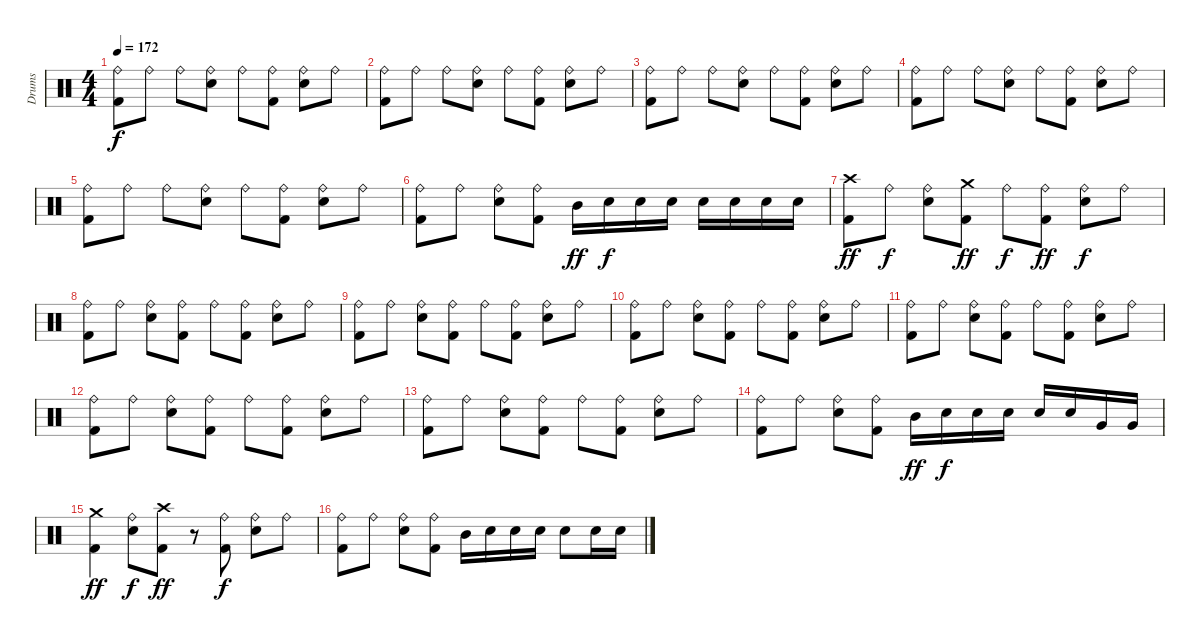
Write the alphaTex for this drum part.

\track ("Drums" "Drums") {instrument percussion}
\staff {score}
\articulation defaults
\ts (4 4)
\tempo 172
\clef neutral
\ks c
("Ride (bell)" "Kick (hit) 2").8{dy f} "Ride (bell)".8 "Ride (bell)".8 ("Ride (bell)" "Electric Snare (hit)").8 "Ride (bell)".8 ("Ride (bell)" "Kick (hit) 2").8 ("Ride (bell)" "Electric Snare (hit)").8 "Ride (bell)".8 |
("Ride (bell)" "Kick (hit) 2").8 "Ride (bell)".8 "Ride (bell)".8 ("Ride (bell)" "Electric Snare (hit)").8 "Ride (bell)".8 ("Ride (bell)" "Kick (hit) 2").8 ("Ride (bell)" "Electric Snare (hit)").8 "Ride (bell)".8 |
("Ride (bell)" "Kick (hit) 2").8 "Ride (bell)".8 "Ride (bell)".8 ("Ride (bell)" "Electric Snare (hit)").8 "Ride (bell)".8 ("Ride (bell)" "Kick (hit) 2").8 ("Ride (bell)" "Electric Snare (hit)").8 "Ride (bell)".8 |
("Ride (bell)" "Kick (hit) 2").8 "Ride (bell)".8 "Ride (bell)".8 ("Ride (bell)" "Electric Snare (hit)").8 "Ride (bell)".8 ("Ride (bell)" "Kick (hit) 2").8 ("Ride (bell)" "Electric Snare (hit)").8 "Ride (bell)".8 |
("Ride (bell)" "Kick (hit) 2").8 "Ride (bell)".8 "Ride (bell)".8 ("Ride (bell)" "Electric Snare (hit)").8 "Ride (bell)".8 ("Ride (bell)" "Kick (hit) 2").8 ("Ride (bell)" "Electric Snare (hit)").8 "Ride (bell)".8 |
("Ride (bell)" "Kick (hit) 2").8 "Ride (bell)".8 ("Ride (bell)" "Electric Snare (hit)").8 ("Ride (bell)" "Kick (hit) 2").8 "Mid Tom (hit)".16{dy ff} "Electric Snare (hit)".16{dy f} "Electric Snare (hit)".16 "Electric Snare (hit)".16 "Electric Snare (hit)".16 "Electric Snare (hit)".16 "Electric Snare (hit)".16 "Electric Snare (hit)".16 |
("Crash high (hit)" "Kick (hit) 2").8{dy ff} "Ride (bell)".8{dy f} ("Ride (bell)" "Electric Snare (hit)").8 ("Crash medium (hit)" "Kick (hit) 2").8{dy ff} "Ride (bell)".8{dy f} ("Ride (bell)" "Kick (hit) 2").8{dy ff} ("Ride (bell)" "Electric Snare (hit)").8{dy f} "Ride (bell)".8 |
("Ride (bell)" "Kick (hit) 2").8 "Ride (bell)".8 ("Ride (bell)" "Electric Snare (hit)").8 ("Ride (bell)" "Kick (hit) 2").8 "Ride (bell)".8 ("Ride (bell)" "Kick (hit) 2").8 ("Ride (bell)" "Electric Snare (hit)").8 "Ride (bell)".8 |
("Ride (bell)" "Kick (hit) 2").8 "Ride (bell)".8 ("Ride (bell)" "Electric Snare (hit)").8 ("Ride (bell)" "Kick (hit) 2").8 "Ride (bell)".8 ("Ride (bell)" "Kick (hit) 2").8 ("Ride (bell)" "Electric Snare (hit)").8 "Ride (bell)".8 |
("Ride (bell)" "Kick (hit) 2").8 "Ride (bell)".8 ("Ride (bell)" "Electric Snare (hit)").8 ("Ride (bell)" "Kick (hit) 2").8 "Ride (bell)".8 ("Ride (bell)" "Kick (hit) 2").8 ("Ride (bell)" "Electric Snare (hit)").8 "Ride (bell)".8 |
("Ride (bell)" "Kick (hit) 2").8 "Ride (bell)".8 ("Ride (bell)" "Electric Snare (hit)").8 ("Ride (bell)" "Kick (hit) 2").8 "Ride (bell)".8 ("Ride (bell)" "Kick (hit) 2").8 ("Ride (bell)" "Electric Snare (hit)").8 "Ride (bell)".8 |
("Ride (bell)" "Kick (hit) 2").8 "Ride (bell)".8 ("Ride (bell)" "Electric Snare (hit)").8 ("Ride (bell)" "Kick (hit) 2").8 "Ride (bell)".8 ("Ride (bell)" "Kick (hit) 2").8 ("Ride (bell)" "Electric Snare (hit)").8 "Ride (bell)".8 |
("Ride (bell)" "Kick (hit) 2").8 "Ride (bell)".8 ("Ride (bell)" "Electric Snare (hit)").8 ("Ride (bell)" "Kick (hit) 2").8 "Ride (bell)".8 ("Ride (bell)" "Kick (hit) 2").8 ("Ride (bell)" "Electric Snare (hit)").8 "Ride (bell)".8 |
("Ride (bell)" "Kick (hit) 2").8 "Ride (bell)".8 ("Ride (bell)" "Electric Snare (hit)").8 ("Ride (bell)" "Kick (hit) 2").8 "Mid Tom (hit)".16{dy ff} "Electric Snare (hit)".16{dy f} "Electric Snare (hit)".16 "Electric Snare (hit)".16 "Electric Snare (hit)".16 "Electric Snare (hit)".16 "Very Low Tom (hit)".16 "Very Low Tom (hit)".16 |
("Crash medium (hit)" "Kick (hit) 2").4{dy ff} ("Ride (bell)" "Electric Snare (hit)").8{dy f} ("Crash high (hit)" "Kick (hit) 2").8{dy ff} r.8 ("Ride (bell)" "Kick (hit) 2").8{dy f} ("Ride (bell)" "Electric Snare (hit)").8 "Ride (bell)".8 |
("Ride (bell)" "Kick (hit) 2").8 "Ride (bell)".8 ("Ride (bell)" "Electric Snare (hit)").8 ("Ride (bell)" "Kick (hit) 2").8 "Mid Tom (hit)".16 "Electric Snare (hit)".16 "Electric Snare (hit)".16 "Electric Snare (hit)".16 "Electric Snare (hit)".8 "Electric Snare (hit)".16 "Electric Snare (hit)".16
